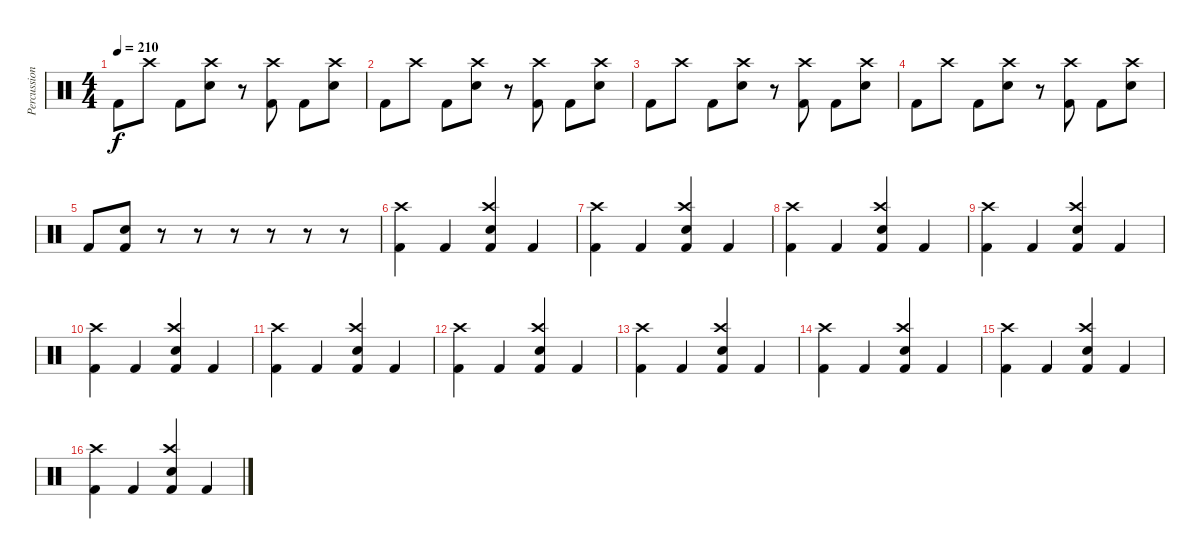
\track ("Percussion" "Percussion") {instrument percussion}
\staff {score}
\articulation defaults
\ts (4 4)
\tempo 210
\clef neutral
\ks c "Kick (hit) 2".8{dy f} "Crash high (hit)".8 "Kick (hit) 2".8
("Crash high (hit)" "Snare (hit) 2").8 r.8 ("Crash high (hit)" "Kick (hit) 2").8 "Kick (hit) 2".8 ("Crash high (hit)" "Snare (hit) 2").8 |
"Kick (hit) 2".8 "Crash high (hit)".8 "Kick (hit) 2".8 ("Crash high (hit)" "Snare (hit) 2").8 r.8 ("Crash high (hit)" "Kick (hit) 2").8 "Kick (hit) 2".8 ("Crash high (hit)" "Snare (hit) 2").8 |
"Kick (hit) 2".8 "Crash high (hit)".8 "Kick (hit) 2".8 ("Crash high (hit)" "Snare (hit) 2").8 r.8 ("Crash high (hit)" "Kick (hit) 2").8 "Kick (hit) 2".8 ("Crash high (hit)" "Snare (hit) 2").8 |
"Kick (hit) 2".8 "Crash high (hit)".8 "Kick (hit) 2".8 ("Crash high (hit)" "Snare (hit) 2").8 r.8 ("Crash high (hit)" "Kick (hit) 2").8 "Kick (hit) 2".8 ("Crash high (hit)" "Snare (hit) 2").8 |
"Kick (hit) 2".8 ("Snare (hit) 2" "Kick (hit) 2").8 r.8 r.8 r.8 r.8 r.8 r.8 |
("Crash high (hit)" "Kick (hit) 2").4 "Kick (hit) 2".4 ("Crash high (hit)" "Snare (hit) 2" "Kick (hit) 2").4 "Kick (hit) 2".4 |
("Crash high (hit)" "Kick (hit) 2").4 "Kick (hit) 2".4 ("Crash high (hit)" "Snare (hit) 2" "Kick (hit) 2").4 "Kick (hit) 2".4 |
("Crash high (hit)" "Kick (hit) 2").4 "Kick (hit) 2".4 ("Crash high (hit)" "Snare (hit) 2" "Kick (hit) 2").4 "Kick (hit) 2".4 |
("Crash high (hit)" "Kick (hit) 2").4 "Kick (hit) 2".4 ("Crash high (hit)" "Snare (hit) 2" "Kick (hit) 2").4 "Kick (hit) 2".4 |
("Crash high (hit)" "Kick (hit) 2").4 "Kick (hit) 2".4 ("Crash high (hit)" "Snare (hit) 2" "Kick (hit) 2").4 "Kick (hit) 2".4 |
("Crash high (hit)" "Kick (hit) 2").4 "Kick (hit) 2".4 ("Crash high (hit)" "Snare (hit) 2" "Kick (hit) 2").4 "Kick (hit) 2".4 |
("Crash high (hit)" "Kick (hit) 2").4 "Kick (hit) 2".4 ("Crash high (hit)" "Snare (hit) 2" "Kick (hit) 2").4 "Kick (hit) 2".4 |
("Crash high (hit)" "Kick (hit) 2").4 "Kick (hit) 2".4 ("Crash high (hit)" "Snare (hit) 2" "Kick (hit) 2").4 "Kick (hit) 2".4 |
("Crash high (hit)" "Kick (hit) 2").4 "Kick (hit) 2".4 ("Crash high (hit)" "Snare (hit) 2" "Kick (hit) 2").4 "Kick (hit) 2".4 |
("Crash high (hit)" "Kick (hit) 2").4 "Kick (hit) 2".4 ("Crash high (hit)" "Snare (hit) 2" "Kick (hit) 2").4 "Kick (hit) 2".4 |
("Crash high (hit)" "Kick (hit) 2").4 "Kick (hit) 2".4 ("Crash high (hit)" "Snare (hit) 2" "Kick (hit) 2").4 "Kick (hit) 2".4
